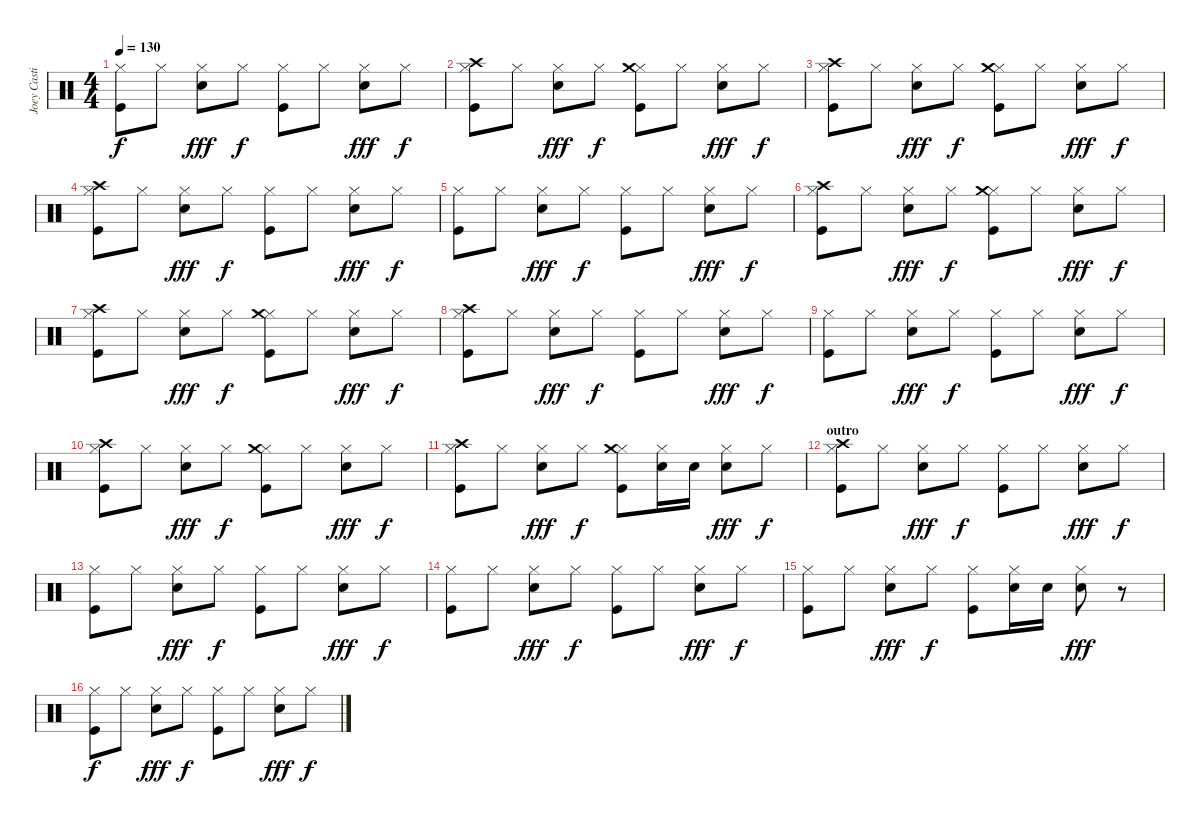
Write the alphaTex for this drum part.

\track ("Joey Castillo - drums" "Joey Casti") {instrument percussion}
\staff {score}
\articulation defaults
\ts (4 4)
\tempo 130
\clef neutral
\ks c
("Hi-Hat (closed)" "Kick (hit)").8{dy f} "Hi-Hat (closed)".8 ("Hi-Hat (closed)" "Electric Snare (hit)").8{dy fff} "Hi-Hat (closed)".8{dy f} ("Hi-Hat (closed)" "Kick (hit)").8 "Hi-Hat (closed)".8 ("Hi-Hat (closed)" "Electric Snare (hit)").8{dy fff} "Hi-Hat (closed)".8{dy f} |
("Hi-Hat (closed)" "Kick (hit)" "Crash high (hit)").8 "Hi-Hat (closed)".8 ("Hi-Hat (closed)" "Electric Snare (hit)").8{dy fff} "Hi-Hat (closed)".8{dy f} ("Hi-Hat (closed)" "Kick (hit)" "Crash medium (hit)").8 "Hi-Hat (closed)".8 ("Hi-Hat (closed)" "Electric Snare (hit)").8{dy fff} "Hi-Hat (closed)".8{dy f} |
("Hi-Hat (closed)" "Kick (hit)" "Crash high (hit)").8 "Hi-Hat (closed)".8 ("Hi-Hat (closed)" "Electric Snare (hit)").8{dy fff} "Hi-Hat (closed)".8{dy f} ("Hi-Hat (closed)" "Kick (hit)" "Crash medium (hit)").8 "Hi-Hat (closed)".8 ("Hi-Hat (closed)" "Electric Snare (hit)").8{dy fff} "Hi-Hat (closed)".8{dy f} |
("Hi-Hat (closed)" "Kick (hit)" "Crash high (hit)").8 "Hi-Hat (closed)".8 ("Hi-Hat (closed)" "Electric Snare (hit)").8{dy fff} "Hi-Hat (closed)".8{dy f} ("Hi-Hat (closed)" "Kick (hit)").8 "Hi-Hat (closed)".8 ("Hi-Hat (closed)" "Electric Snare (hit)").8{dy fff} "Hi-Hat (closed)".8{dy f} |
("Hi-Hat (closed)" "Kick (hit)").8 "Hi-Hat (closed)".8 ("Hi-Hat (closed)" "Electric Snare (hit)").8{dy fff} "Hi-Hat (closed)".8{dy f} ("Hi-Hat (closed)" "Kick (hit)").8 "Hi-Hat (closed)".8 ("Hi-Hat (closed)" "Electric Snare (hit)").8{dy fff} "Hi-Hat (closed)".8{dy f} |
("Hi-Hat (closed)" "Kick (hit)" "Crash high (hit)").8 "Hi-Hat (closed)".8 ("Hi-Hat (closed)" "Electric Snare (hit)").8{dy fff} "Hi-Hat (closed)".8{dy f} ("Hi-Hat (closed)" "Kick (hit)" "Crash medium (hit)").8 "Hi-Hat (closed)".8 ("Hi-Hat (closed)" "Electric Snare (hit)").8{dy fff} "Hi-Hat (closed)".8{dy f} |
("Hi-Hat (closed)" "Kick (hit)" "Crash high (hit)").8 "Hi-Hat (closed)".8 ("Hi-Hat (closed)" "Electric Snare (hit)").8{dy fff} "Hi-Hat (closed)".8{dy f} ("Hi-Hat (closed)" "Kick (hit)" "Crash medium (hit)").8 "Hi-Hat (closed)".8 ("Hi-Hat (closed)" "Electric Snare (hit)").8{dy fff} "Hi-Hat (closed)".8{dy f} |
("Hi-Hat (closed)" "Kick (hit)" "Crash high (hit)").8 "Hi-Hat (closed)".8 ("Hi-Hat (closed)" "Electric Snare (hit)").8{dy fff} "Hi-Hat (closed)".8{dy f} ("Hi-Hat (closed)" "Kick (hit)").8 "Hi-Hat (closed)".8 ("Hi-Hat (closed)" "Electric Snare (hit)").8{dy fff} "Hi-Hat (closed)".8{dy f} |
("Hi-Hat (closed)" "Kick (hit)").8 "Hi-Hat (closed)".8 ("Hi-Hat (closed)" "Electric Snare (hit)").8{dy fff} "Hi-Hat (closed)".8{dy f} ("Hi-Hat (closed)" "Kick (hit)").8 "Hi-Hat (closed)".8 ("Hi-Hat (closed)" "Electric Snare (hit)").8{dy fff} "Hi-Hat (closed)".8{dy f} |
("Hi-Hat (closed)" "Kick (hit)" "Crash high (hit)").8 "Hi-Hat (closed)".8 ("Hi-Hat (closed)" "Electric Snare (hit)").8{dy fff} "Hi-Hat (closed)".8{dy f} ("Hi-Hat (closed)" "Kick (hit)" "Crash medium (hit)").8 "Hi-Hat (closed)".8 ("Hi-Hat (closed)" "Electric Snare (hit)").8{dy fff} "Hi-Hat (closed)".8{dy f} |
("Hi-Hat (closed)" "Kick (hit)" "Crash high (hit)").8 "Hi-Hat (closed)".8 ("Hi-Hat (closed)" "Electric Snare (hit)").8{dy fff} "Hi-Hat (closed)".8{dy f} ("Hi-Hat (closed)" "Kick (hit)" "Crash medium (hit)").8 ("Hi-Hat (closed)" "Electric Snare (hit)").16 "Electric Snare (hit)".16 ("Hi-Hat (closed)" "Electric Snare (hit)").8{dy fff} "Hi-Hat (closed)".8{dy f} |
\section ("" "outro")
("Hi-Hat (closed)" "Kick (hit)" "Crash high (hit)").8 "Hi-Hat (closed)".8 ("Hi-Hat (closed)" "Electric Snare (hit)").8{dy fff} "Hi-Hat (closed)".8{dy f} ("Hi-Hat (closed)" "Kick (hit)").8 "Hi-Hat (closed)".8 ("Hi-Hat (closed)" "Electric Snare (hit)").8{dy fff} "Hi-Hat (closed)".8{dy f} |
("Hi-Hat (closed)" "Kick (hit)").8 "Hi-Hat (closed)".8 ("Hi-Hat (closed)" "Electric Snare (hit)").8{dy fff} "Hi-Hat (closed)".8{dy f} ("Hi-Hat (closed)" "Kick (hit)").8 "Hi-Hat (closed)".8 ("Hi-Hat (closed)" "Electric Snare (hit)").8{dy fff} "Hi-Hat (closed)".8{dy f} |
("Hi-Hat (closed)" "Kick (hit)").8 "Hi-Hat (closed)".8 ("Hi-Hat (closed)" "Electric Snare (hit)").8{dy fff} "Hi-Hat (closed)".8{dy f} ("Hi-Hat (closed)" "Kick (hit)").8 "Hi-Hat (closed)".8 ("Hi-Hat (closed)" "Electric Snare (hit)").8{dy fff} "Hi-Hat (closed)".8{dy f} |
("Hi-Hat (closed)" "Kick (hit)").8 "Hi-Hat (closed)".8 ("Hi-Hat (closed)" "Electric Snare (hit)").8{dy fff} "Hi-Hat (closed)".8{dy f} ("Hi-Hat (closed)" "Kick (hit)").8 ("Hi-Hat (closed)" "Electric Snare (hit)").16 "Electric Snare (hit)".16 ("Hi-Hat (closed)" "Electric Snare (hit)").8{dy fff} r.8 |
("Hi-Hat (closed)" "Kick (hit)").8{dy f} "Hi-Hat (closed)".8 ("Hi-Hat (closed)" "Electric Snare (hit)").8{dy fff} "Hi-Hat (closed)".8{dy f} ("Hi-Hat (closed)" "Kick (hit)").8 "Hi-Hat (closed)".8 ("Hi-Hat (closed)" "Electric Snare (hit)").8{dy fff} "Hi-Hat (closed)".8{dy f}
